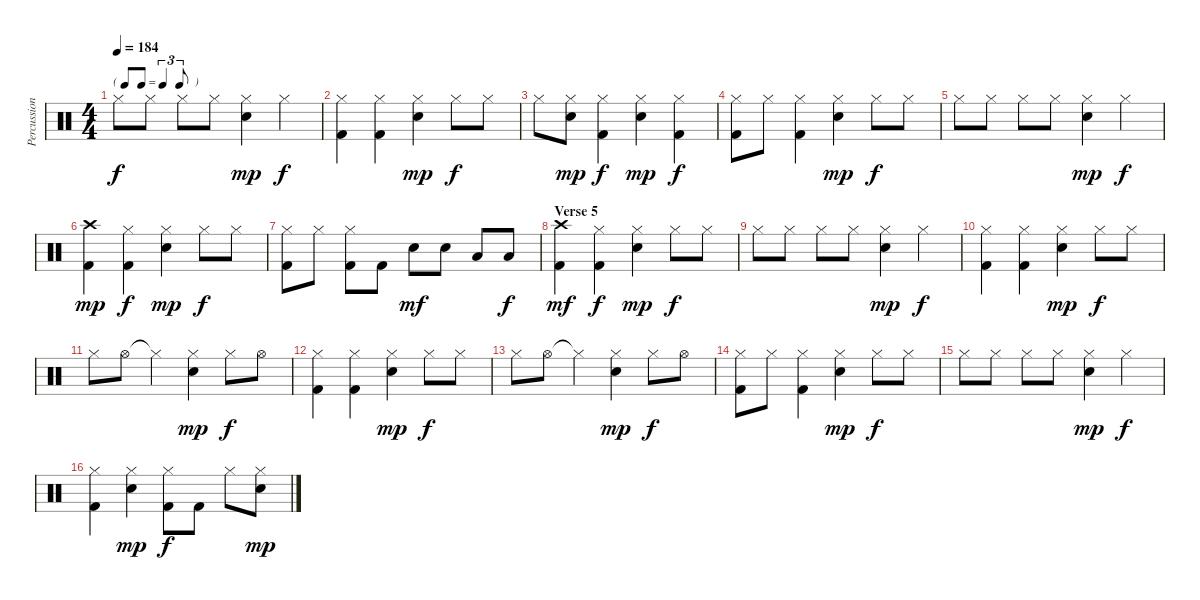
\track ("Percussion" "Percussion") {instrument percussion}
\staff {score}
\articulation defaults
\ts (4 4)
\tf triplet8th
\tempo 184
\clef neutral
\ks c "Hi-Hat (closed)".8{dy f} "Hi-Hat (closed)".8 "Hi-Hat (closed)".8 "Hi-Hat (closed)".8
("Hi-Hat (closed)" "Electric Snare (hit)").4{dy mp} "Hi-Hat (closed)".4{dy f} |
("Hi-Hat (closed)" "Kick (hit) 2").4 ("Hi-Hat (closed)" "Kick (hit) 2").4 ("Hi-Hat (closed)" "Electric Snare (hit)").4{dy mp} "Hi-Hat (closed)".8{dy f} "Hi-Hat (closed)".8 |
"Hi-Hat (closed)".8 ("Hi-Hat (closed)" "Electric Snare (hit)").8{dy mp} ("Hi-Hat (closed)" "Kick (hit) 2").4{dy f} ("Hi-Hat (closed)" "Electric Snare (hit)").4{dy mp} ("Hi-Hat (closed)" "Kick (hit) 2").4{dy f} |
("Hi-Hat (closed)" "Kick (hit) 2").8 "Hi-Hat (closed)".8 ("Hi-Hat (closed)" "Kick (hit) 2").4 ("Hi-Hat (closed)" "Electric Snare (hit)").4{dy mp} "Hi-Hat (closed)".8{dy f} "Hi-Hat (closed)".8 |
"Hi-Hat (closed)".8 "Hi-Hat (closed)".8 "Hi-Hat (closed)".8 "Hi-Hat (closed)".8 ("Hi-Hat (closed)" "Electric Snare (hit)").4{dy mp} "Hi-Hat (closed)".4{dy f} |
("Crash high (hit)" "Kick (hit) 2").4{dy mp} ("Hi-Hat (closed)" "Kick (hit) 2").4{dy f} ("Hi-Hat (closed)" "Electric Snare (hit)").4{dy mp} "Hi-Hat (closed)".8{dy f} "Hi-Hat (closed)".8 |
("Hi-Hat (closed)" "Kick (hit) 2").8 "Hi-Hat (closed)".8 ("Hi-Hat (closed)" "Kick (hit) 2").8 "Kick (hit) 2".8 "Electric Snare (hit)".8{dy mf} "Electric Snare (hit)".8 "Low Tom (hit)".8 "Low Tom (hit)".8{dy f} |
\section ("" "Verse 5")
("Crash high (hit)" "Kick (hit) 2").4{dy mf} ("Hi-Hat (closed)" "Kick (hit) 2").4{dy f} ("Hi-Hat (closed)" "Electric Snare (hit)").4{dy mp} "Hi-Hat (closed)".8{dy f} "Hi-Hat (closed)".8 |
"Hi-Hat (closed)".8 "Hi-Hat (closed)".8 "Hi-Hat (closed)".8 "Hi-Hat (closed)".8 ("Hi-Hat (closed)" "Electric Snare (hit)").4{dy mp} "Hi-Hat (closed)".4{dy f} |
("Hi-Hat (closed)" "Kick (hit) 2").4 ("Hi-Hat (closed)" "Kick (hit) 2").4 ("Hi-Hat (closed)" "Electric Snare (hit)").4{dy mp} "Hi-Hat (closed)".8{dy f} "Hi-Hat (closed)".8 |
"Hi-Hat (closed)".8 "Hi-Hat (open)".8 "Hi-Hat (closed)"{t}.4 ("Hi-Hat (closed)" "Electric Snare (hit)").4{dy mp} "Hi-Hat (closed)".8{dy f} "Hi-Hat (open)".8 |
("Hi-Hat (closed)" "Kick (hit) 2").4 ("Hi-Hat (closed)" "Kick (hit) 2").4 ("Hi-Hat (closed)" "Electric Snare (hit)").4{dy mp} "Hi-Hat (closed)".8{dy f} "Hi-Hat (closed)".8 |
"Hi-Hat (closed)".8 "Hi-Hat (open)".8 "Hi-Hat (closed)"{t}.4 ("Hi-Hat (closed)" "Electric Snare (hit)").4{dy mp} "Hi-Hat (closed)".8{dy f} "Hi-Hat (open)".8 |
("Hi-Hat (closed)" "Kick (hit) 2").8 "Hi-Hat (closed)".8 ("Hi-Hat (closed)" "Kick (hit) 2").4 ("Hi-Hat (closed)" "Electric Snare (hit)").4{dy mp} "Hi-Hat (closed)".8{dy f} "Hi-Hat (closed)".8 |
"Hi-Hat (closed)".8 "Hi-Hat (closed)".8 "Hi-Hat (closed)".8 "Hi-Hat (closed)".8 ("Hi-Hat (closed)" "Electric Snare (hit)").4{dy mp} "Hi-Hat (closed)".4{dy f} |
("Hi-Hat (closed)" "Kick (hit) 2").4 ("Hi-Hat (closed)" "Electric Snare (hit)").4{dy mp} ("Hi-Hat (closed)" "Kick (hit) 2").8{dy f} "Kick (hit) 2".8 "Hi-Hat (closed)".8 ("Hi-Hat (closed)" "Electric Snare (hit)").8{dy mp}
